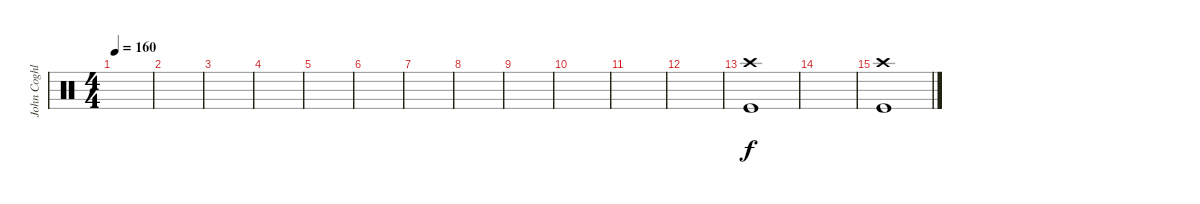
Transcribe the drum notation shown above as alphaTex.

\track ("John Coghlan" "John Coghl") {instrument percussion}
\staff {score}
\articulation defaults
\ts (4 4)
\tempo 160
\clef neutral
\ks c
|
|
|
|
|
|
|
|
|
|
|
|
("Crash high (hit)" "Kick (hit)").1 |
|
("Crash high (hit)" "Kick (hit)").1
